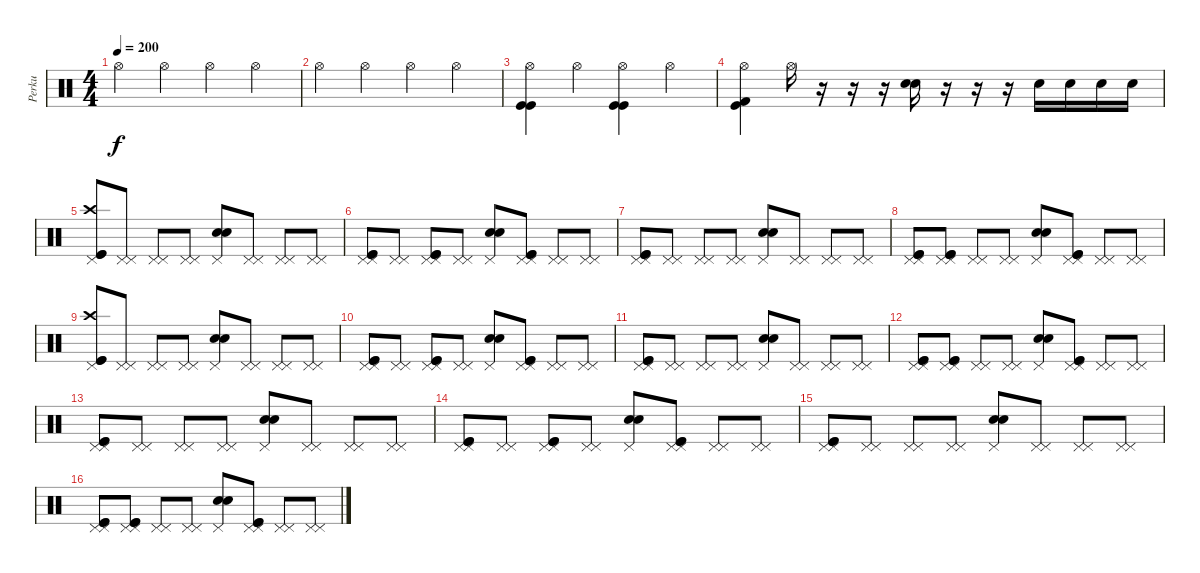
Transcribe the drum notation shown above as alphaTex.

\track ("Perku" "Perku") {instrument percussion}
\staff {score}
\articulation defaults
\ts (4 4)
\tempo 200
\clef neutral
\ks c "Hi-Hat (open)".4{dy f} "Hi-Hat (open)".4 "Hi-Hat (open)".4 "Hi-Hat (open)".4
|
"Hi-Hat (open)".4 "Hi-Hat (open)".4 "Hi-Hat (open)".4 "Hi-Hat (open)".4 |
("Hi-Hat (open)" "Kick (hit)" "Kick (hit)").4 "Hi-Hat (open)".4 ("Hi-Hat (open)" "Kick (hit)" "Kick (hit)").4 "Hi-Hat (open)".4 |
("Hi-Hat (open)" "Kick (hit) 2" "Kick (hit)").4 "Hi-Hat (open)".16 r.16 r.16 r.16 ("Electric Snare (hit)" "Electric Snare (hit)").16 r.16 r.16 r.16 "Electric Snare (hit)".16 "Electric Snare (hit)".16 "Electric Snare (hit)".16 "Electric Snare (hit)".16 |
("Crash high (hit)" "Pedal Hi-Hat (hit)" "Kick (hit)" "Kick (hit)").8 ("Pedal Hi-Hat (hit)" "Pedal Hi-Hat (hit)").8 ("Pedal Hi-Hat (hit)" "Pedal Hi-Hat (hit)").8 ("Pedal Hi-Hat (hit)" "Pedal Hi-Hat (hit)").8 ("Pedal Hi-Hat (hit)" "Electric Snare (hit)" "Electric Snare (hit)").8 ("Pedal Hi-Hat (hit)" "Pedal Hi-Hat (hit)").8 ("Pedal Hi-Hat (hit)" "Pedal Hi-Hat (hit)").8 ("Pedal Hi-Hat (hit)" "Pedal Hi-Hat (hit)").8 |
("Pedal Hi-Hat (hit)" "Pedal Hi-Hat (hit)" "Kick (hit)" "Kick (hit)").8 ("Pedal Hi-Hat (hit)" "Pedal Hi-Hat (hit)").8 ("Pedal Hi-Hat (hit)" "Pedal Hi-Hat (hit)" "Kick (hit)" "Kick (hit)").8 ("Pedal Hi-Hat (hit)" "Pedal Hi-Hat (hit)").8 ("Pedal Hi-Hat (hit)" "Electric Snare (hit)" "Electric Snare (hit)").8 ("Pedal Hi-Hat (hit)" "Pedal Hi-Hat (hit)" "Kick (hit)" "Kick (hit)").8 ("Pedal Hi-Hat (hit)" "Pedal Hi-Hat (hit)").8 ("Pedal Hi-Hat (hit)" "Pedal Hi-Hat (hit)").8 |
("Pedal Hi-Hat (hit)" "Pedal Hi-Hat (hit)" "Kick (hit)" "Kick (hit)").8 ("Pedal Hi-Hat (hit)" "Pedal Hi-Hat (hit)").8 ("Pedal Hi-Hat (hit)" "Pedal Hi-Hat (hit)").8 ("Pedal Hi-Hat (hit)" "Pedal Hi-Hat (hit)").8 ("Pedal Hi-Hat (hit)" "Electric Snare (hit)" "Electric Snare (hit)").8 ("Pedal Hi-Hat (hit)" "Pedal Hi-Hat (hit)").8 ("Pedal Hi-Hat (hit)" "Pedal Hi-Hat (hit)").8 ("Pedal Hi-Hat (hit)" "Pedal Hi-Hat (hit)").8 |
("Pedal Hi-Hat (hit)" "Pedal Hi-Hat (hit)" "Kick (hit)" "Kick (hit)").8 ("Pedal Hi-Hat (hit)" "Pedal Hi-Hat (hit)" "Kick (hit)" "Kick (hit)").8 ("Pedal Hi-Hat (hit)" "Pedal Hi-Hat (hit)").8 ("Pedal Hi-Hat (hit)" "Pedal Hi-Hat (hit)").8 ("Pedal Hi-Hat (hit)" "Electric Snare (hit)" "Electric Snare (hit)").8 ("Pedal Hi-Hat (hit)" "Pedal Hi-Hat (hit)" "Kick (hit)" "Kick (hit)").8 ("Pedal Hi-Hat (hit)" "Pedal Hi-Hat (hit)").8 ("Pedal Hi-Hat (hit)" "Pedal Hi-Hat (hit)").8 |
("Crash high (hit)" "Pedal Hi-Hat (hit)" "Kick (hit)" "Kick (hit)").8 ("Pedal Hi-Hat (hit)" "Pedal Hi-Hat (hit)").8 ("Pedal Hi-Hat (hit)" "Pedal Hi-Hat (hit)").8 ("Pedal Hi-Hat (hit)" "Pedal Hi-Hat (hit)").8 ("Pedal Hi-Hat (hit)" "Electric Snare (hit)" "Electric Snare (hit)").8 ("Pedal Hi-Hat (hit)" "Pedal Hi-Hat (hit)").8 ("Pedal Hi-Hat (hit)" "Pedal Hi-Hat (hit)").8 ("Pedal Hi-Hat (hit)" "Pedal Hi-Hat (hit)").8 |
("Pedal Hi-Hat (hit)" "Pedal Hi-Hat (hit)" "Kick (hit)" "Kick (hit)").8 ("Pedal Hi-Hat (hit)" "Pedal Hi-Hat (hit)").8 ("Pedal Hi-Hat (hit)" "Pedal Hi-Hat (hit)" "Kick (hit)" "Kick (hit)").8 ("Pedal Hi-Hat (hit)" "Pedal Hi-Hat (hit)").8 ("Pedal Hi-Hat (hit)" "Electric Snare (hit)" "Electric Snare (hit)").8 ("Pedal Hi-Hat (hit)" "Pedal Hi-Hat (hit)" "Kick (hit)" "Kick (hit)").8 ("Pedal Hi-Hat (hit)" "Pedal Hi-Hat (hit)").8 ("Pedal Hi-Hat (hit)" "Pedal Hi-Hat (hit)").8 |
("Pedal Hi-Hat (hit)" "Pedal Hi-Hat (hit)" "Kick (hit)" "Kick (hit)").8 ("Pedal Hi-Hat (hit)" "Pedal Hi-Hat (hit)").8 ("Pedal Hi-Hat (hit)" "Pedal Hi-Hat (hit)").8 ("Pedal Hi-Hat (hit)" "Pedal Hi-Hat (hit)").8 ("Pedal Hi-Hat (hit)" "Electric Snare (hit)" "Electric Snare (hit)").8 ("Pedal Hi-Hat (hit)" "Pedal Hi-Hat (hit)").8 ("Pedal Hi-Hat (hit)" "Pedal Hi-Hat (hit)").8 ("Pedal Hi-Hat (hit)" "Pedal Hi-Hat (hit)").8 |
("Pedal Hi-Hat (hit)" "Pedal Hi-Hat (hit)" "Kick (hit)" "Kick (hit)").8 ("Pedal Hi-Hat (hit)" "Pedal Hi-Hat (hit)" "Kick (hit)" "Kick (hit)").8 ("Pedal Hi-Hat (hit)" "Pedal Hi-Hat (hit)").8 ("Pedal Hi-Hat (hit)" "Pedal Hi-Hat (hit)").8 ("Pedal Hi-Hat (hit)" "Electric Snare (hit)" "Electric Snare (hit)").8 ("Pedal Hi-Hat (hit)" "Pedal Hi-Hat (hit)" "Kick (hit)" "Kick (hit)").8 ("Pedal Hi-Hat (hit)" "Pedal Hi-Hat (hit)").8 ("Pedal Hi-Hat (hit)" "Pedal Hi-Hat (hit)").8 |
("Pedal Hi-Hat (hit)" "Pedal Hi-Hat (hit)" "Kick (hit)" "Kick (hit)").8 ("Pedal Hi-Hat (hit)" "Pedal Hi-Hat (hit)").8 ("Pedal Hi-Hat (hit)" "Pedal Hi-Hat (hit)").8 ("Pedal Hi-Hat (hit)" "Pedal Hi-Hat (hit)").8 ("Pedal Hi-Hat (hit)" "Electric Snare (hit)" "Electric Snare (hit)").8 ("Pedal Hi-Hat (hit)" "Pedal Hi-Hat (hit)").8 ("Pedal Hi-Hat (hit)" "Pedal Hi-Hat (hit)").8 ("Pedal Hi-Hat (hit)" "Pedal Hi-Hat (hit)").8 |
("Pedal Hi-Hat (hit)" "Pedal Hi-Hat (hit)" "Kick (hit)" "Kick (hit)").8 ("Pedal Hi-Hat (hit)" "Pedal Hi-Hat (hit)").8 ("Pedal Hi-Hat (hit)" "Pedal Hi-Hat (hit)" "Kick (hit)" "Kick (hit)").8 ("Pedal Hi-Hat (hit)" "Pedal Hi-Hat (hit)").8 ("Pedal Hi-Hat (hit)" "Electric Snare (hit)" "Electric Snare (hit)").8 ("Pedal Hi-Hat (hit)" "Pedal Hi-Hat (hit)" "Kick (hit)" "Kick (hit)").8 ("Pedal Hi-Hat (hit)" "Pedal Hi-Hat (hit)").8 ("Pedal Hi-Hat (hit)" "Pedal Hi-Hat (hit)").8 |
("Pedal Hi-Hat (hit)" "Pedal Hi-Hat (hit)" "Kick (hit)" "Kick (hit)").8 ("Pedal Hi-Hat (hit)" "Pedal Hi-Hat (hit)").8 ("Pedal Hi-Hat (hit)" "Pedal Hi-Hat (hit)").8 ("Pedal Hi-Hat (hit)" "Pedal Hi-Hat (hit)").8 ("Pedal Hi-Hat (hit)" "Electric Snare (hit)" "Electric Snare (hit)").8 ("Pedal Hi-Hat (hit)" "Pedal Hi-Hat (hit)").8 ("Pedal Hi-Hat (hit)" "Pedal Hi-Hat (hit)").8 ("Pedal Hi-Hat (hit)" "Pedal Hi-Hat (hit)").8 |
("Pedal Hi-Hat (hit)" "Pedal Hi-Hat (hit)" "Kick (hit)" "Kick (hit)").8 ("Pedal Hi-Hat (hit)" "Pedal Hi-Hat (hit)" "Kick (hit)" "Kick (hit)").8 ("Pedal Hi-Hat (hit)" "Pedal Hi-Hat (hit)").8 ("Pedal Hi-Hat (hit)" "Pedal Hi-Hat (hit)").8 ("Pedal Hi-Hat (hit)" "Electric Snare (hit)" "Electric Snare (hit)").8 ("Pedal Hi-Hat (hit)" "Pedal Hi-Hat (hit)" "Kick (hit)" "Kick (hit)").8 ("Pedal Hi-Hat (hit)" "Pedal Hi-Hat (hit)").8 ("Pedal Hi-Hat (hit)" "Pedal Hi-Hat (hit)").8
